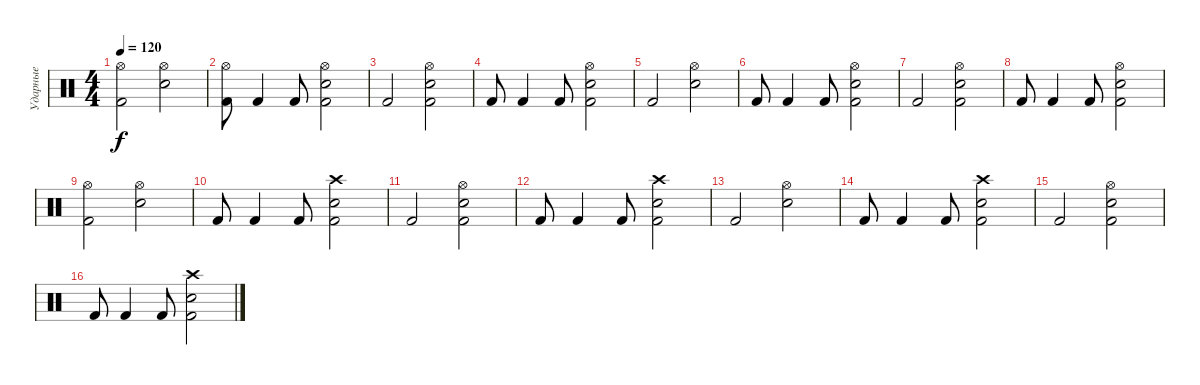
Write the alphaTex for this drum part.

\track ("Ударные" "Ударные") {instrument percussion}
\staff {score}
\articulation defaults
\ts (4 4)
\tempo 120
\clef neutral
\ks c
("Hi-Hat (open)" "Kick (hit) 2").2{dy f} ("Hi-Hat (open)" "Snare (hit) 2").2 |
("Hi-Hat (open)" "Kick (hit) 2").8 "Kick (hit) 2".4 "Kick (hit) 2".8 ("Hi-Hat (open)" "Snare (hit) 2" "Kick (hit) 2").2 |
"Kick (hit) 2".2 ("Hi-Hat (open)" "Snare (hit) 2" "Kick (hit) 2").2 |
"Kick (hit) 2".8 "Kick (hit) 2".4 "Kick (hit) 2".8 ("Hi-Hat (open)" "Snare (hit) 2" "Kick (hit) 2").2 |
"Kick (hit) 2".2 ("Hi-Hat (open)" "Snare (hit) 2").2 |
"Kick (hit) 2".8 "Kick (hit) 2".4 "Kick (hit) 2".8 ("Hi-Hat (open)" "Snare (hit) 2" "Kick (hit) 2").2 |
"Kick (hit) 2".2 ("Hi-Hat (open)" "Snare (hit) 2" "Kick (hit) 2").2 |
"Kick (hit) 2".8 "Kick (hit) 2".4 "Kick (hit) 2".8 ("Hi-Hat (open)" "Snare (hit) 2" "Kick (hit) 2").2 |
("Hi-Hat (open)" "Kick (hit) 2").2 ("Hi-Hat (open)" "Snare (hit) 2").2 |
"Kick (hit) 2".8 "Kick (hit) 2".4 "Kick (hit) 2".8 ("Crash high (hit)" "Snare (hit) 2" "Kick (hit) 2").2 |
"Kick (hit) 2".2 ("Hi-Hat (open)" "Snare (hit) 2" "Kick (hit) 2").2 |
"Kick (hit) 2".8 "Kick (hit) 2".4 "Kick (hit) 2".8 ("Crash high (hit)" "Snare (hit) 2" "Kick (hit) 2").2 |
"Kick (hit) 2".2 ("Hi-Hat (open)" "Snare (hit) 2").2 |
"Kick (hit) 2".8 "Kick (hit) 2".4 "Kick (hit) 2".8 ("Crash high (hit)" "Snare (hit) 2" "Kick (hit) 2").2 |
"Kick (hit) 2".2 ("Hi-Hat (open)" "Snare (hit) 2" "Kick (hit) 2").2 |
"Kick (hit) 2".8 "Kick (hit) 2".4 "Kick (hit) 2".8 ("Crash high (hit)" "Snare (hit) 2" "Kick (hit) 2").2
